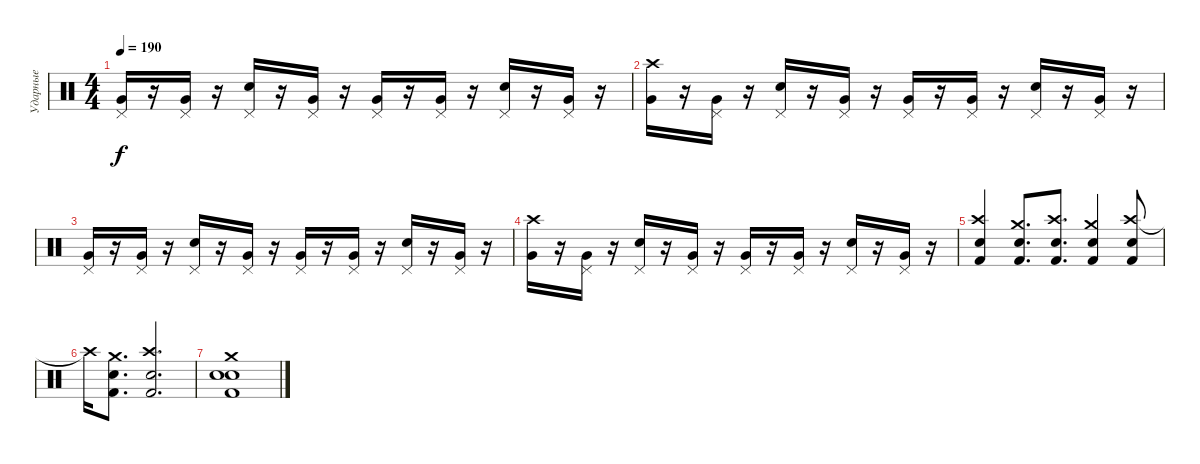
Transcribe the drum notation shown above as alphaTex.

\track ("Ударные" "Ударные") {instrument percussion}
\staff {score}
\articulation defaults
\ts (4 4)
\tempo 190
\clef neutral
\ks c
("Very Low Tom (hit)" "Pedal Hi-Hat (hit)").16{dy f} r.16 ("Very Low Tom (hit)" "Pedal Hi-Hat (hit)").16 r.16 ("Electric Snare (hit)" "Pedal Hi-Hat (hit)").16 r.16 ("Very Low Tom (hit)" "Pedal Hi-Hat (hit)").16 r.16 ("Very Low Tom (hit)" "Pedal Hi-Hat (hit)").16 r.16 ("Very Low Tom (hit)" "Pedal Hi-Hat (hit)").16 r.16 ("Electric Snare (hit)" "Pedal Hi-Hat (hit)").16 r.16 ("Very Low Tom (hit)" "Pedal Hi-Hat (hit)").16 r.16 |
("Very Low Tom (hit)" "Crash high (hit)").16 r.16 ("Very Low Tom (hit)" "Pedal Hi-Hat (hit)").16 r.16 ("Electric Snare (hit)" "Pedal Hi-Hat (hit)").16 r.16 ("Very Low Tom (hit)" "Pedal Hi-Hat (hit)").16 r.16 ("Very Low Tom (hit)" "Pedal Hi-Hat (hit)").16 r.16 ("Very Low Tom (hit)" "Pedal Hi-Hat (hit)").16 r.16 ("Electric Snare (hit)" "Pedal Hi-Hat (hit)").16 r.16 ("Very Low Tom (hit)" "Pedal Hi-Hat (hit)").16 r.16 |
("Very Low Tom (hit)" "Pedal Hi-Hat (hit)").16 r.16 ("Very Low Tom (hit)" "Pedal Hi-Hat (hit)").16 r.16 ("Electric Snare (hit)" "Pedal Hi-Hat (hit)").16 r.16 ("Very Low Tom (hit)" "Pedal Hi-Hat (hit)").16 r.16 ("Very Low Tom (hit)" "Pedal Hi-Hat (hit)").16 r.16 ("Very Low Tom (hit)" "Pedal Hi-Hat (hit)").16 r.16 ("Electric Snare (hit)" "Pedal Hi-Hat (hit)").16 r.16 ("Very Low Tom (hit)" "Pedal Hi-Hat (hit)").16 r.16 |
("Very Low Tom (hit)" "Crash high (hit)").16 r.16 ("Very Low Tom (hit)" "Pedal Hi-Hat (hit)").16 r.16 ("Electric Snare (hit)" "Pedal Hi-Hat (hit)").16 r.16 ("Very Low Tom (hit)" "Pedal Hi-Hat (hit)").16 r.16 ("Very Low Tom (hit)" "Pedal Hi-Hat (hit)").16 r.16 ("Very Low Tom (hit)" "Pedal Hi-Hat (hit)").16 r.16 ("Electric Snare (hit)" "Pedal Hi-Hat (hit)").16 r.16 ("Very Low Tom (hit)" "Pedal Hi-Hat (hit)").16 r.16 |
("Crash high (hit)" "Kick (hit) 2" "Electric Snare (hit)").4 ("Crash medium (hit)" "Kick (hit) 2" "Snare (hit) 2").8{d} ("Crash high (hit)" "Kick (hit) 2" "Electric Snare (hit)").8{d} ("Crash medium (hit)" "Kick (hit) 2" "Snare (hit) 2").4 ("Crash high (hit)" "Kick (hit) 2" "Electric Snare (hit)").8 |
"Crash high (hit)"{t}.16 ("Crash medium (hit)" "Kick (hit) 2" "Snare (hit) 2").8{d} ("Crash high (hit)" "Kick (hit) 2" "Electric Snare (hit)").2{d} |
("Crash medium (hit)" "Snare (hit) 2" "Kick (hit) 2" "Electric Snare (hit)").1
